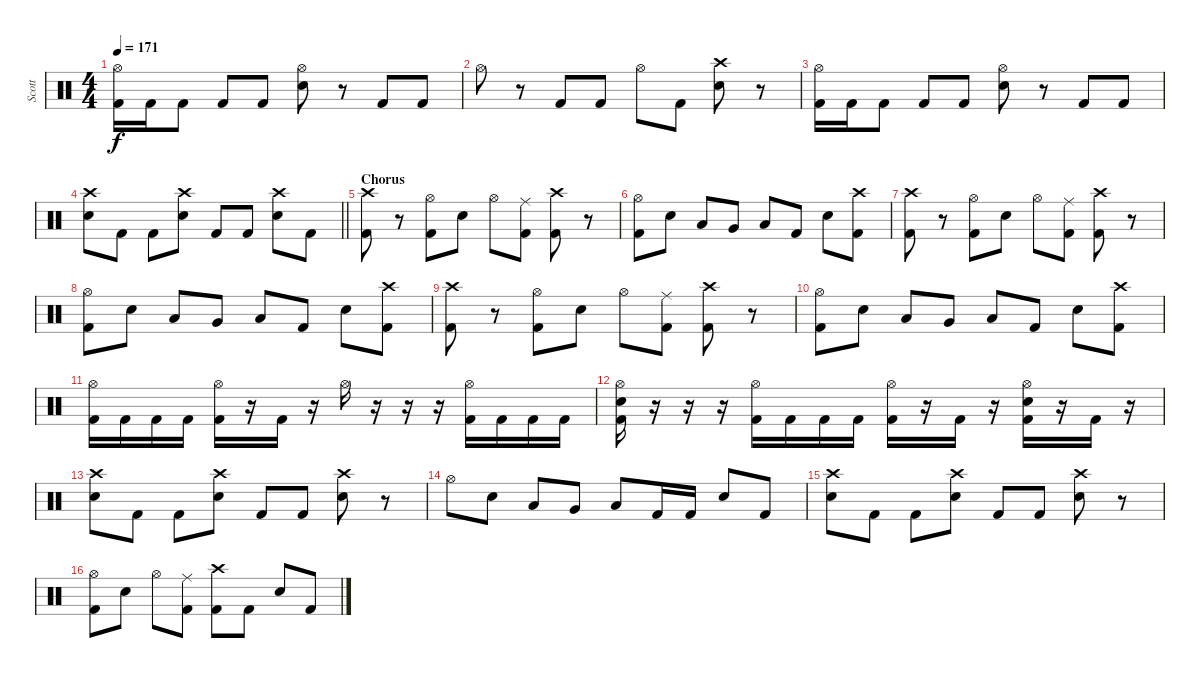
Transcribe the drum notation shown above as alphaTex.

\track ("Scott" "Scott") {instrument percussion}
\staff {score}
\articulation defaults
\ts (4 4)
\tempo 171
\clef neutral
\ks c
("Hi-Hat (open)" "Kick (hit) 2").16{dy f} "Kick (hit) 2".16 "Kick (hit) 2".8 "Kick (hit) 2".8 "Kick (hit) 2".8 ("Hi-Hat (open)" "Electric Snare (hit)").8 r.8 "Kick (hit) 2".8 "Kick (hit) 2".8 |
"Hi-Hat (open)".8 r.8 "Kick (hit) 2".8 "Kick (hit) 2".8 "Hi-Hat (open)".8 "Kick (hit) 2".8 ("Crash high (hit)" "Electric Snare (hit)").8 r.8 |
("Hi-Hat (open)" "Kick (hit) 2").16 "Kick (hit) 2".16 "Kick (hit) 2".8 "Kick (hit) 2".8 "Kick (hit) 2".8 ("Hi-Hat (open)" "Electric Snare (hit)").8 r.8 "Kick (hit) 2".8 "Kick (hit) 2".8 |
\barLineRight lightlight
("Crash high (hit)" "Electric Snare (hit)").8 "Kick (hit) 2".8 "Kick (hit) 2".8 ("Crash high (hit)" "Electric Snare (hit)").8 "Kick (hit) 2".8 "Kick (hit) 2".8 ("Crash high (hit)" "Electric Snare (hit)").8 "Kick (hit) 2".8 |
\section ("" "Chorus")
("Crash high (hit)" "Kick (hit) 2").8 r.8 ("Hi-Hat (open)" "Kick (hit) 2").8 "Electric Snare (hit)".8 "Hi-Hat (open)".8 ("Ride (middle)" "Kick (hit) 2").8 ("Crash high (hit)" "Kick (hit) 2").8 r.8 |
("Hi-Hat (open)" "Kick (hit) 2").8 "Electric Snare (hit)".8 "Low Tom (hit)".8 "Very Low Tom (hit)".8 "Low Floor Tom (hit)".8 "Kick (hit) 2".8 "Electric Snare (hit)".8 ("Crash high (hit)" "Kick (hit) 2").8 |
("Crash high (hit)" "Kick (hit) 2").8 r.8 ("Hi-Hat (open)" "Kick (hit) 2").8 "Electric Snare (hit)".8 "Hi-Hat (open)".8 ("Ride (middle)" "Kick (hit) 2").8 ("Crash high (hit)" "Kick (hit) 2").8 r.8 |
("Hi-Hat (open)" "Kick (hit) 2").8 "Electric Snare (hit)".8 "Low Tom (hit)".8 "Very Low Tom (hit)".8 "Low Floor Tom (hit)".8 "Kick (hit) 2".8 "Electric Snare (hit)".8 ("Crash high (hit)" "Kick (hit) 2").8 |
("Crash high (hit)" "Kick (hit) 2").8 r.8 ("Hi-Hat (open)" "Kick (hit) 2").8 "Electric Snare (hit)".8 "Hi-Hat (open)".8 ("Ride (middle)" "Kick (hit) 2").8 ("Crash high (hit)" "Kick (hit) 2").8 r.8 |
("Hi-Hat (open)" "Kick (hit) 2").8 "Electric Snare (hit)".8 "Low Tom (hit)".8 "Very Low Tom (hit)".8 "Low Floor Tom (hit)".8 "Kick (hit) 2".8 "Electric Snare (hit)".8 ("Crash high (hit)" "Kick (hit) 2").8 |
("Hi-Hat (open)" "Kick (hit) 2").16 "Kick (hit) 2".16 "Kick (hit) 2".16 "Kick (hit) 2".16 ("Hi-Hat (open)" "Kick (hit) 2").16 r.16 "Kick (hit) 2".16 r.16 "Hi-Hat (open)".16 r.16 r.16 r.16 ("Hi-Hat (open)" "Kick (hit) 2").16 "Kick (hit) 2".16 "Kick (hit) 2".16 "Kick (hit) 2".16 |
("Hi-Hat (open)" "Electric Snare (hit)" "Kick (hit) 2").16 r.16 r.16 r.16 ("Hi-Hat (open)" "Kick (hit) 2").16 "Kick (hit) 2".16 "Kick (hit) 2".16 "Kick (hit) 2".16 ("Hi-Hat (open)" "Kick (hit) 2").16 r.16 "Kick (hit) 2".16 r.16 ("Hi-Hat (open)" "Electric Snare (hit)" "Kick (hit) 2").16 r.16 "Kick (hit) 2".16 r.16 |
("Crash high (hit)" "Electric Snare (hit)").8 "Kick (hit) 2".8 "Kick (hit) 2".8 ("Crash high (hit)" "Electric Snare (hit)").8 "Kick (hit) 2".8 "Kick (hit) 2".8 ("Crash high (hit)" "Electric Snare (hit)").8 r.8 |
"Hi-Hat (open)".8 "Electric Snare (hit)".8 "Low Tom (hit)".8 "Very Low Tom (hit)".8 "Low Floor Tom (hit)".8 "Kick (hit) 2".16 "Kick (hit) 2".16 "Electric Snare (hit)".8 "Kick (hit) 2".8 |
("Crash high (hit)" "Electric Snare (hit)").8 "Kick (hit) 2".8 "Kick (hit) 2".8 ("Crash high (hit)" "Electric Snare (hit)").8 "Kick (hit) 2".8 "Kick (hit) 2".8 ("Crash high (hit)" "Electric Snare (hit)").8 r.8 |
("Hi-Hat (open)" "Kick (hit) 2").8 "Electric Snare (hit)".8 "Hi-Hat (open)".8 ("Ride (middle)" "Kick (hit) 2").8 ("Crash high (hit)" "Kick (hit) 2").8 "Kick (hit) 2".8 "Electric Snare (hit)".8 "Kick (hit) 2".8
